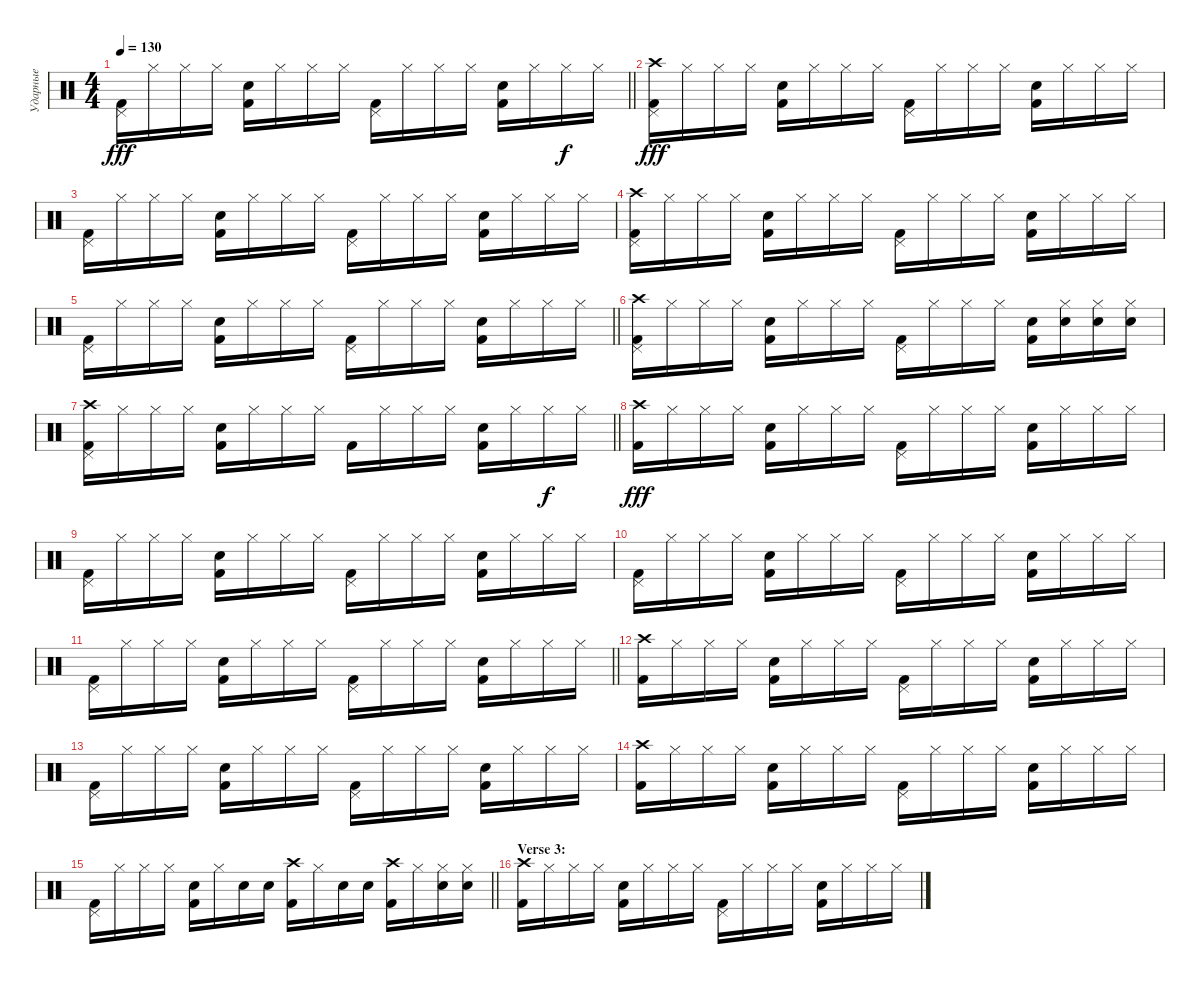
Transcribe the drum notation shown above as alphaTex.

\track ("Ударные" "Ударные") {instrument percussion}
\staff {score}
\articulation defaults
\ts (4 4)
\tempo 130
\clef neutral
\barLineRight lightlight
\ks c
("Pedal Hi-Hat (hit)" "Kick (hit) 2").16{dy fff} "Hi-Hat (closed)".16 "Hi-Hat (closed)".16 "Hi-Hat (closed)".16 ("Snare (hit) 2" "Kick (hit) 2").16 "Hi-Hat (closed)".16 "Hi-Hat (closed)".16 "Hi-Hat (closed)".16 ("Pedal Hi-Hat (hit)" "Kick (hit) 2").16 "Hi-Hat (closed)".16 "Hi-Hat (closed)".16 "Hi-Hat (closed)".16 ("Snare (hit) 2" "Kick (hit) 2").16 "Hi-Hat (closed)".16 "Hi-Hat (closed)".16{dy f} "Hi-Hat (closed)".16 |
("Pedal Hi-Hat (hit)" "Crash high (hit)" "Kick (hit) 2").16{dy fff} "Hi-Hat (closed)".16 "Hi-Hat (closed)".16 "Hi-Hat (closed)".16 ("Snare (hit) 2" "Kick (hit) 2").16 "Hi-Hat (closed)".16 "Hi-Hat (closed)".16 "Hi-Hat (closed)".16 ("Pedal Hi-Hat (hit)" "Kick (hit) 2").16 "Hi-Hat (closed)".16 "Hi-Hat (closed)".16 "Hi-Hat (closed)".16 ("Snare (hit) 2" "Kick (hit) 2").16 "Hi-Hat (closed)".16 "Hi-Hat (closed)".16 "Hi-Hat (closed)".16 |
("Pedal Hi-Hat (hit)" "Kick (hit) 2").16 "Hi-Hat (closed)".16 "Hi-Hat (closed)".16 "Hi-Hat (closed)".16 ("Snare (hit) 2" "Kick (hit) 2").16 "Hi-Hat (closed)".16 "Hi-Hat (closed)".16 "Hi-Hat (closed)".16 ("Pedal Hi-Hat (hit)" "Kick (hit) 2").16 "Hi-Hat (closed)".16 "Hi-Hat (closed)".16 "Hi-Hat (closed)".16 ("Snare (hit) 2" "Kick (hit) 2").16 "Hi-Hat (closed)".16 "Hi-Hat (closed)".16 "Hi-Hat (closed)".16 |
("Pedal Hi-Hat (hit)" "Crash high (hit)" "Kick (hit) 2").16 "Hi-Hat (closed)".16 "Hi-Hat (closed)".16 "Hi-Hat (closed)".16 ("Snare (hit) 2" "Kick (hit) 2").16 "Hi-Hat (closed)".16 "Hi-Hat (closed)".16 "Hi-Hat (closed)".16 ("Pedal Hi-Hat (hit)" "Kick (hit) 2").16 "Hi-Hat (closed)".16 "Hi-Hat (closed)".16 "Hi-Hat (closed)".16 ("Snare (hit) 2" "Kick (hit) 2").16 "Hi-Hat (closed)".16 "Hi-Hat (closed)".16 "Hi-Hat (closed)".16 |
\barLineRight lightlight
("Pedal Hi-Hat (hit)" "Kick (hit) 2").16 "Hi-Hat (closed)".16 "Hi-Hat (closed)".16 "Hi-Hat (closed)".16 ("Snare (hit) 2" "Kick (hit) 2").16 "Hi-Hat (closed)".16 "Hi-Hat (closed)".16 "Hi-Hat (closed)".16 ("Pedal Hi-Hat (hit)" "Kick (hit) 2").16 "Hi-Hat (closed)".16 "Hi-Hat (closed)".16 "Hi-Hat (closed)".16 ("Snare (hit) 2" "Kick (hit) 2").16 "Hi-Hat (closed)".16 "Hi-Hat (closed)".16 "Hi-Hat (closed)".16 |
("Pedal Hi-Hat (hit)" "Crash high (hit)" "Kick (hit) 2").16 "Hi-Hat (closed)".16 "Hi-Hat (closed)".16 "Hi-Hat (closed)".16 ("Snare (hit) 2" "Kick (hit) 2").16 "Hi-Hat (closed)".16 "Hi-Hat (closed)".16 "Hi-Hat (closed)".16 ("Pedal Hi-Hat (hit)" "Kick (hit) 2").16 "Hi-Hat (closed)".16 "Hi-Hat (closed)".16 "Hi-Hat (closed)".16 ("Snare (hit) 2" "Kick (hit) 2").16 ("Hi-Hat (closed)" "Snare (hit) 2").16 ("Hi-Hat (closed)" "Snare (hit) 2").16 ("Hi-Hat (closed)" "Snare (hit) 2").16 |
\barLineRight lightlight
("Pedal Hi-Hat (hit)" "Crash high (hit)" "Kick (hit) 2").16 "Hi-Hat (closed)".16 "Hi-Hat (closed)".16 "Hi-Hat (closed)".16 ("Snare (hit) 2" "Kick (hit) 2").16 "Hi-Hat (closed)".16 "Hi-Hat (closed)".16 "Hi-Hat (closed)".16 "Kick (hit) 2".16 "Hi-Hat (closed)".16 "Hi-Hat (closed)".16 "Hi-Hat (closed)".16 ("Snare (hit) 2" "Kick (hit) 2").16 "Hi-Hat (closed)".16 "Hi-Hat (closed)".16{dy f} "Hi-Hat (closed)".16 |
("Crash high (hit)" "Kick (hit) 2").16{dy fff} "Hi-Hat (closed)".16 "Hi-Hat (closed)".16 "Hi-Hat (closed)".16 ("Snare (hit) 2" "Kick (hit) 2").16 "Hi-Hat (closed)".16 "Hi-Hat (closed)".16 "Hi-Hat (closed)".16 ("Pedal Hi-Hat (hit)" "Kick (hit) 2").16 "Hi-Hat (closed)".16 "Hi-Hat (closed)".16 "Hi-Hat (closed)".16 ("Snare (hit) 2" "Kick (hit) 2").16 "Hi-Hat (closed)".16 "Hi-Hat (closed)".16 "Hi-Hat (closed)".16 |
("Pedal Hi-Hat (hit)" "Kick (hit) 2").16 "Hi-Hat (closed)".16 "Hi-Hat (closed)".16 "Hi-Hat (closed)".16 ("Snare (hit) 2" "Kick (hit) 2").16 "Hi-Hat (closed)".16 "Hi-Hat (closed)".16 "Hi-Hat (closed)".16 ("Pedal Hi-Hat (hit)" "Kick (hit) 2").16 "Hi-Hat (closed)".16 "Hi-Hat (closed)".16 "Hi-Hat (closed)".16 ("Snare (hit) 2" "Kick (hit) 2").16 "Hi-Hat (closed)".16 "Hi-Hat (closed)".16 "Hi-Hat (closed)".16 |
("Pedal Hi-Hat (hit)" "Kick (hit) 2").16 "Hi-Hat (closed)".16 "Hi-Hat (closed)".16 "Hi-Hat (closed)".16 ("Snare (hit) 2" "Kick (hit) 2").16 "Hi-Hat (closed)".16 "Hi-Hat (closed)".16 "Hi-Hat (closed)".16 ("Pedal Hi-Hat (hit)" "Kick (hit) 2").16 "Hi-Hat (closed)".16 "Hi-Hat (closed)".16 "Hi-Hat (closed)".16 ("Snare (hit) 2" "Kick (hit) 2").16 "Hi-Hat (closed)".16 "Hi-Hat (closed)".16 "Hi-Hat (closed)".16 |
\barLineRight lightlight
("Pedal Hi-Hat (hit)" "Kick (hit) 2").16 "Hi-Hat (closed)".16 "Hi-Hat (closed)".16 "Hi-Hat (closed)".16 ("Snare (hit) 2" "Kick (hit) 2").16 "Hi-Hat (closed)".16 "Hi-Hat (closed)".16 "Hi-Hat (closed)".16 ("Pedal Hi-Hat (hit)" "Kick (hit) 2").16 "Hi-Hat (closed)".16 "Hi-Hat (closed)".16 "Hi-Hat (closed)".16 ("Snare (hit) 2" "Kick (hit) 2").16 "Hi-Hat (closed)".16 "Hi-Hat (closed)".16 "Hi-Hat (closed)".16 |
("Crash high (hit)" "Kick (hit) 2").16 "Hi-Hat (closed)".16 "Hi-Hat (closed)".16 "Hi-Hat (closed)".16 ("Snare (hit) 2" "Kick (hit) 2").16 "Hi-Hat (closed)".16 "Hi-Hat (closed)".16 "Hi-Hat (closed)".16 ("Pedal Hi-Hat (hit)" "Kick (hit) 2").16 "Hi-Hat (closed)".16 "Hi-Hat (closed)".16 "Hi-Hat (closed)".16 ("Snare (hit) 2" "Kick (hit) 2").16 "Hi-Hat (closed)".16 "Hi-Hat (closed)".16 "Hi-Hat (closed)".16 |
("Pedal Hi-Hat (hit)" "Kick (hit) 2").16 "Hi-Hat (closed)".16 "Hi-Hat (closed)".16 "Hi-Hat (closed)".16 ("Snare (hit) 2" "Kick (hit) 2").16 "Hi-Hat (closed)".16 "Hi-Hat (closed)".16 "Hi-Hat (closed)".16 ("Pedal Hi-Hat (hit)" "Kick (hit) 2").16 "Hi-Hat (closed)".16 "Hi-Hat (closed)".16 "Hi-Hat (closed)".16 ("Snare (hit) 2" "Kick (hit) 2").16 "Hi-Hat (closed)".16 "Hi-Hat (closed)".16 "Hi-Hat (closed)".16 |
("Crash high (hit)" "Kick (hit) 2").16 "Hi-Hat (closed)".16 "Hi-Hat (closed)".16 "Hi-Hat (closed)".16 ("Snare (hit) 2" "Kick (hit) 2").16 "Hi-Hat (closed)".16 "Hi-Hat (closed)".16 "Hi-Hat (closed)".16 ("Pedal Hi-Hat (hit)" "Kick (hit) 2").16 "Hi-Hat (closed)".16 "Hi-Hat (closed)".16 "Hi-Hat (closed)".16 ("Snare (hit) 2" "Kick (hit) 2").16 "Hi-Hat (closed)".16 "Hi-Hat (closed)".16 "Hi-Hat (closed)".16 |
\barLineRight lightlight
("Pedal Hi-Hat (hit)" "Kick (hit) 2").16 "Hi-Hat (closed)".16 "Hi-Hat (closed)".16 "Hi-Hat (closed)".16 ("Snare (hit) 2" "Kick (hit) 2").16 "Hi-Hat (closed)".16 "Snare (hit) 2".16 "Snare (hit) 2".16 ("Crash high (hit)" "Kick (hit) 2").16 "Hi-Hat (closed)".16 "Snare (hit) 2".16 "Snare (hit) 2".16 ("Crash high (hit)" "Kick (hit) 2").16 "Hi-Hat (closed)".16 ("Hi-Hat (closed)" "Snare (hit) 2").16 ("Hi-Hat (closed)" "Snare (hit) 2").16 |
\section ("" "Verse 3:")
("Crash high (hit)" "Kick (hit) 2").16 "Hi-Hat (closed)".16 "Hi-Hat (closed)".16 "Hi-Hat (closed)".16 ("Snare (hit) 2" "Kick (hit) 2").16 "Hi-Hat (closed)".16 "Hi-Hat (closed)".16 "Hi-Hat (closed)".16 ("Pedal Hi-Hat (hit)" "Kick (hit) 2").16 "Hi-Hat (closed)".16 "Hi-Hat (closed)".16 "Hi-Hat (closed)".16 ("Snare (hit) 2" "Kick (hit) 2").16 "Hi-Hat (closed)".16 "Hi-Hat (closed)".16 "Hi-Hat (closed)".16
